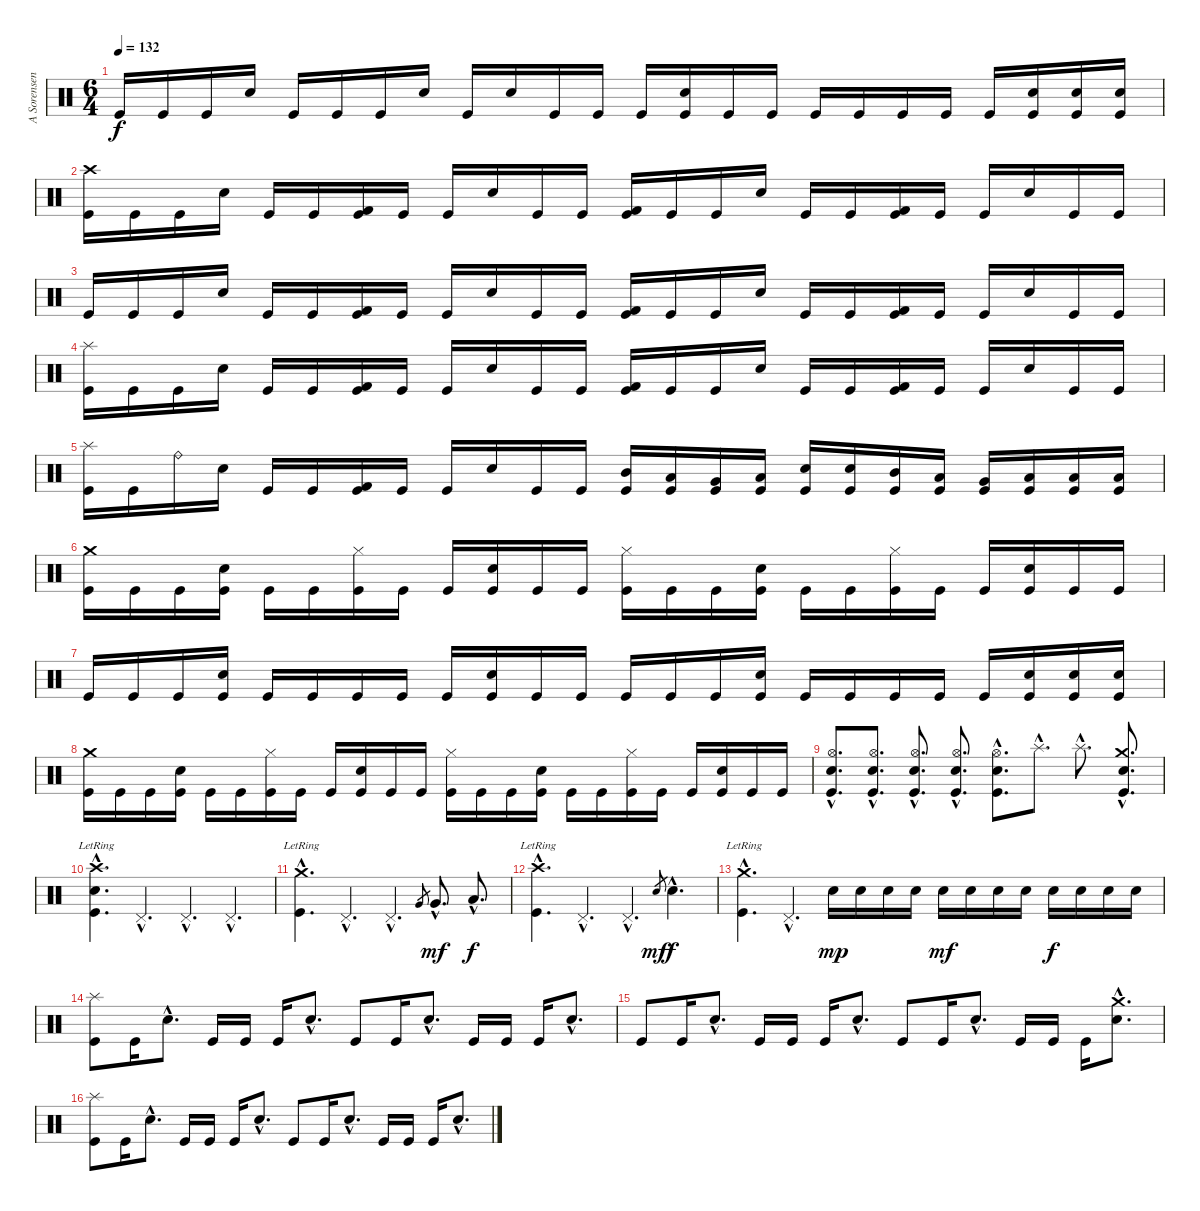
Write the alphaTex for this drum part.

\track ("A Sorensen" "A Sorensen") {instrument percussion}
\staff {score}
\articulation defaults
\ts (6 4)
\tempo 132
\clef neutral
\ks c "Kick (hit)".16{dy f} "Kick (hit)".16 "Kick (hit)".16 "Electric Snare (hit)".16 "Kick (hit)".16 "Kick (hit)".16 "Kick (hit)".16 "Electric Snare (hit)".16 "Kick (hit)".16 "Electric Snare (hit)".16 "Kick (hit)".16 "Kick (hit)".16 "Kick (hit)".16
("Electric Snare (hit)" "Kick (hit)").16 "Kick (hit)".16 "Kick (hit)".16 "Kick (hit)".16 "Kick (hit)".16 "Kick (hit)".16 "Kick (hit)".16 "Kick (hit)".16 ("Electric Snare (hit)" "Kick (hit)").16 ("Electric Snare (hit)" "Kick (hit)").16 ("Electric Snare (hit)" "Kick (hit)").16 |
("Crash high (hit)" "Kick (hit)").16 "Kick (hit)".16 "Kick (hit)".16 "Electric Snare (hit)".16 "Kick (hit)".16 "Kick (hit)".16 ("Kick (hit) 2" "Kick (hit)").16 "Kick (hit)".16 "Kick (hit)".16 "Electric Snare (hit)".16 "Kick (hit)".16 "Kick (hit)".16 ("Kick (hit) 2" "Kick (hit)").16 "Kick (hit)".16 "Kick (hit)".16 "Electric Snare (hit)".16 "Kick (hit)".16 "Kick (hit)".16 ("Kick (hit) 2" "Kick (hit)").16 "Kick (hit)".16 "Kick (hit)".16 "Electric Snare (hit)".16 "Kick (hit)".16 "Kick (hit)".16 |
"Kick (hit)".16 "Kick (hit)".16 "Kick (hit)".16 "Electric Snare (hit)".16 "Kick (hit)".16 "Kick (hit)".16 ("Kick (hit) 2" "Kick (hit)").16 "Kick (hit)".16 "Kick (hit)".16 "Electric Snare (hit)".16 "Kick (hit)".16 "Kick (hit)".16 ("Kick (hit) 2" "Kick (hit)").16 "Kick (hit)".16 "Kick (hit)".16 "Electric Snare (hit)".16 "Kick (hit)".16 "Kick (hit)".16 ("Kick (hit) 2" "Kick (hit)").16 "Kick (hit)".16 "Kick (hit)".16 "Electric Snare (hit)".16 "Kick (hit)".16 "Kick (hit)".16 |
("Splash (hit)" "Kick (hit)").16 "Kick (hit)".16 "Kick (hit)".16 "Electric Snare (hit)".16 "Kick (hit)".16 "Kick (hit)".16 ("Kick (hit) 2" "Kick (hit)").16 "Kick (hit)".16 "Kick (hit)".16 "Electric Snare (hit)".16 "Kick (hit)".16 "Kick (hit)".16 ("Kick (hit) 2" "Kick (hit)").16 "Kick (hit)".16 "Kick (hit)".16 "Electric Snare (hit)".16 "Kick (hit)".16 "Kick (hit)".16 ("Kick (hit) 2" "Kick (hit)").16 "Kick (hit)".16 "Kick (hit)".16 "Electric Snare (hit)".16 "Kick (hit)".16 "Kick (hit)".16 |
("Splash (hit)" "Kick (hit)").16 "Kick (hit)".16 "Ride (bell)".16 "Electric Snare (hit)".16 "Kick (hit)".16 "Kick (hit)".16 ("Kick (hit) 2" "Kick (hit)").16 "Kick (hit)".16 "Kick (hit)".16 "Electric Snare (hit)".16 "Kick (hit)".16 "Kick (hit)".16 ("Mid Tom (hit)" "Kick (hit)").16 ("Low Tom (hit)" "Kick (hit)").16 ("Very Low Tom (hit)" "Kick (hit)").16 ("Low Floor Tom (hit)" "Kick (hit)").16 ("Electric Snare (hit)" "Kick (hit)").16 ("Electric Snare (hit)" "Kick (hit)").16 ("Mid Tom (hit)" "Kick (hit)").16 ("Low Tom (hit)" "Kick (hit)").16 ("Very Low Tom (hit)" "Kick (hit)").16 ("Low Floor Tom (hit)" "Kick (hit)").16 ("Low Floor Tom (hit)" "Kick (hit)").16 ("Low Floor Tom (hit)" "Kick (hit)").16 |
("Crash medium (hit)" "Kick (hit)").16 "Kick (hit)".16 "Kick (hit)".16 ("Electric Snare (hit)" "Kick (hit)").16 "Kick (hit)".16 "Kick (hit)".16 ("Hi-Hat (closed)" "Kick (hit)").16 "Kick (hit)".16 "Kick (hit)".16 ("Electric Snare (hit)" "Kick (hit)").16 "Kick (hit)".16 "Kick (hit)".16 ("Hi-Hat (closed)" "Kick (hit)").16 "Kick (hit)".16 "Kick (hit)".16 ("Electric Snare (hit)" "Kick (hit)").16 "Kick (hit)".16 "Kick (hit)".16 ("Hi-Hat (closed)" "Kick (hit)").16 "Kick (hit)".16 "Kick (hit)".16 ("Electric Snare (hit)" "Kick (hit)").16 "Kick (hit)".16 "Kick (hit)".16 |
"Kick (hit)".16 "Kick (hit)".16 "Kick (hit)".16 ("Electric Snare (hit)" "Kick (hit)").16 "Kick (hit)".16 "Kick (hit)".16 "Kick (hit)".16 "Kick (hit)".16 "Kick (hit)".16 ("Electric Snare (hit)" "Kick (hit)").16 "Kick (hit)".16 "Kick (hit)".16 "Kick (hit)".16 "Kick (hit)".16 "Kick (hit)".16 ("Electric Snare (hit)" "Kick (hit)").16 "Kick (hit)".16 "Kick (hit)".16 "Kick (hit)".16 "Kick (hit)".16 "Kick (hit)".16 ("Electric Snare (hit)" "Kick (hit)").16 ("Electric Snare (hit)" "Kick (hit)").16 ("Electric Snare (hit)" "Kick (hit)").16 |
("Crash medium (hit)" "Kick (hit)").16 "Kick (hit)".16 "Kick (hit)".16 ("Electric Snare (hit)" "Kick (hit)").16 "Kick (hit)".16 "Kick (hit)".16 ("Hi-Hat (closed)" "Kick (hit)").16 "Kick (hit)".16 "Kick (hit)".16 ("Electric Snare (hit)" "Kick (hit)").16 "Kick (hit)".16 "Kick (hit)".16 ("Hi-Hat (closed)" "Kick (hit)").16 "Kick (hit)".16 "Kick (hit)".16 ("Electric Snare (hit)" "Kick (hit)").16 "Kick (hit)".16 "Kick (hit)".16 ("Hi-Hat (closed)" "Kick (hit)").16 "Kick (hit)".16 "Kick (hit)".16 ("Electric Snare (hit)" "Kick (hit)").16 "Kick (hit)".16 "Kick (hit)".16 |
("Hi-Hat (open)"{hac} "Snare (hit) 2"{hac} "Kick (hit)"{hac}).8{d} ("Hi-Hat (open)"{hac} "Snare (hit) 2"{hac} "Kick (hit)"{hac}).8{d} ("Hi-Hat (open)"{hac} "Snare (hit) 2"{hac} "Kick (hit)"{hac}).8{d} ("Hi-Hat (open)"{hac} "Snare (hit) 2"{hac} "Kick (hit)"{hac}).8{d} ("Hi-Hat (open)"{hac} "Electric Snare (hit)"{hac} "Kick (hit)"{hac}).8{d} "Splash (hit)"{hac}.8{d} "Splash (hit)"{hac}.8{d} ("Crash medium (hit)"{hac} "Snare (hit) 2"{hac} "Kick (hit)"{hac}).8{d} |
("Crash high (hit)"{hac lr} "Electric Snare (hit)"{hac} "Kick (hit)"{hac}).4{d} "Pedal Hi-Hat (hit)"{hac}.4{d} "Pedal Hi-Hat (hit)"{hac}.4{d} "Pedal Hi-Hat (hit)"{hac}.4{d} |
("Crash medium (hit)"{hac lr} "Kick (hit)"{hac}).4{d} "Pedal Hi-Hat (hit)"{hac}.4{d} "Pedal Hi-Hat (hit)"{hac}.4{d} "Very Low Tom (hit)".8{gr} "Very Low Tom (hit)"{hac}.8{d dy mf} "Low Floor Tom (hit)"{hac}.8{d dy f} |
("Crash high (hit)"{hac lr} "Kick (hit)"{hac}).4{d} "Pedal Hi-Hat (hit)"{hac}.4{d} "Pedal Hi-Hat (hit)"{hac}.4{d} "Electric Snare (hit)".8{gr dy mf} "Electric Snare (hit)"{hac}.4{d dy f} |
("Crash medium (hit)"{hac lr} "Kick (hit)"{hac}).4{d} "Pedal Hi-Hat (hit)"{hac}.4{d} "Electric Snare (hit)".16{dy mp} "Electric Snare (hit)".16 "Electric Snare (hit)".16 "Electric Snare (hit)".16 "Electric Snare (hit)".16{dy mf} "Electric Snare (hit)".16 "Electric Snare (hit)".16 "Electric Snare (hit)".16 "Electric Snare (hit)".16{dy f} "Electric Snare (hit)".16 "Electric Snare (hit)".16 "Electric Snare (hit)".16 |
("Splash (hit)" "Kick (hit)").8 "Kick (hit)".16 "Electric Snare (hit)"{hac}.8{d} "Kick (hit)".16 "Kick (hit)".16 "Kick (hit)".16 "Electric Snare (hit)"{hac}.8{d} "Kick (hit)".8 "Kick (hit)".16 "Electric Snare (hit)"{hac}.8{d} "Kick (hit)".16 "Kick (hit)".16 "Kick (hit)".16 "Electric Snare (hit)"{hac}.8{d} |
"Kick (hit)".8 "Kick (hit)".16 "Electric Snare (hit)"{hac}.8{d} "Kick (hit)".16 "Kick (hit)".16 "Kick (hit)".16 "Electric Snare (hit)"{hac}.8{d} "Kick (hit)".8 "Kick (hit)".16 "Electric Snare (hit)"{hac}.8{d} "Kick (hit)".16 "Kick (hit)".16 "Kick (hit)".16 ("Crash medium (hit)"{hac} "Electric Snare (hit)"{hac}).8{d} |
("Splash (hit)" "Kick (hit)").8 "Kick (hit)".16 "Electric Snare (hit)"{hac}.8{d} "Kick (hit)".16 "Kick (hit)".16 "Kick (hit)".16 "Electric Snare (hit)"{hac}.8{d} "Kick (hit)".8 "Kick (hit)".16 "Electric Snare (hit)"{hac}.8{d} "Kick (hit)".16 "Kick (hit)".16 "Kick (hit)".16 "Electric Snare (hit)"{hac}.8{d}
